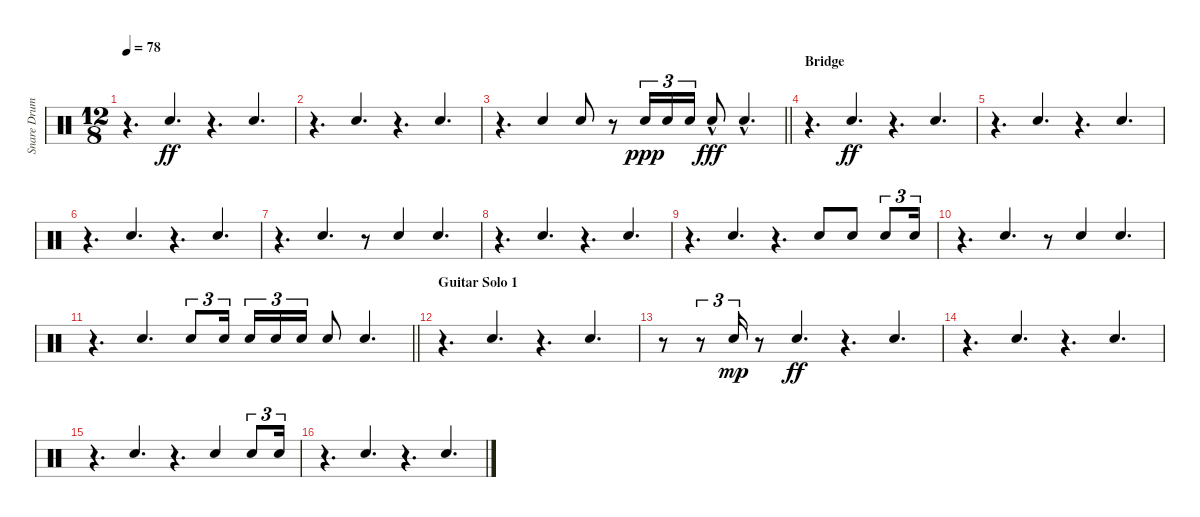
\track ("Snare Drum" "Snare Drum") {instrument percussion}
\staff {score}
\articulation defaults
\ts (12 8)
\tempo 78
\clef neutral
\ks c
r.4{d dy ff} "Electric Snare (hit)".4{d beam Up} r.4{d} "Electric Snare (hit)".4{d beam Up} |
r.4{d} "Electric Snare (hit)".4{d beam Up} r.4{d} "Electric Snare (hit)".4{d beam Up} |
\barLineRight lightlight
r.4{d} "Electric Snare (hit)".4{beam Up} "Electric Snare (hit)".8{beam Up} r.8 "Snare (hit) 2".16{tu (3 2) dy ppp beam Up} "Snare (hit) 2".16{tu (3 2) beam Up} "Snare (hit) 2".16{tu (3 2) beam Up} "Electric Snare (hit)"{hac}.8{dy fff beam Up} "Electric Snare (hit)"{hac}.4{d beam Up} |
\section ("" "Bridge")
r.4{d} "Electric Snare (hit)".4{d dy ff beam Up} r.4{d} "Electric Snare (hit)".4{d beam Up} |
r.4{d} "Electric Snare (hit)".4{d beam Up} r.4{d} "Electric Snare (hit)".4{d beam Up} |
r.4{d} "Electric Snare (hit)".4{d beam Up} r.4{d} "Electric Snare (hit)".4{d beam Up} |
r.4{d} "Electric Snare (hit)".4{d beam Up} r.8 "Electric Snare (hit)".4{beam Up} "Electric Snare (hit)".4{d beam Up} |
r.4{d} "Electric Snare (hit)".4{d beam Up} r.4{d} "Electric Snare (hit)".4{d beam Up} |
r.4{d} "Electric Snare (hit)".4{d beam Up} r.4{d} "Electric Snare (hit)".8{beam Up} "Electric Snare (hit)".8{beam Up} "Electric Snare (hit)".8{tu (3 2) beam Up} "Electric Snare (hit)".16{tu (3 2) beam Up} |
r.4{d} "Electric Snare (hit)".4{d beam Up} r.8 "Electric Snare (hit)".4{beam Up} "Electric Snare (hit)".4{d beam Up} |
\barLineRight lightlight
r.4{d} "Electric Snare (hit)".4{d beam Up} "Electric Snare (hit)".8{tu (3 2) beam Up} "Electric Snare (hit)".16{tu (3 2) beam Up beam splitsecondary} "Electric Snare (hit)".16{tu (3 2) beam Up} "Electric Snare (hit)".16{tu (3 2) beam Up} "Electric Snare (hit)".16{tu (3 2) beam Up} "Electric Snare (hit)".8{beam Up} "Electric Snare (hit)".4{d beam Up} |
\section ("" "Guitar Solo 1")
r.4{d} "Electric Snare (hit)".4{d beam Up} r.4{d} "Electric Snare (hit)".4{d beam Up} |
r.8 r.8{tu (3 2) beam Up} "Snare (hit) 2".16{tu (3 2) dy mp beam Up} r.8 "Electric Snare (hit)".4{d dy ff beam Up} r.4{d} "Electric Snare (hit)".4{d beam Up} |
r.4{d} "Electric Snare (hit)".4{d beam Up} r.4{d} "Electric Snare (hit)".4{d beam Up} |
r.4{d} "Electric Snare (hit)".4{d beam Up} r.4{d} "Electric Snare (hit)".4{beam Up} "Electric Snare (hit)".8{tu (3 2) beam Up} "Electric Snare (hit)".16{tu (3 2) beam Up} |
r.4{d} "Electric Snare (hit)".4{d beam Up} r.4{d} "Electric Snare (hit)".4{d beam Up}
